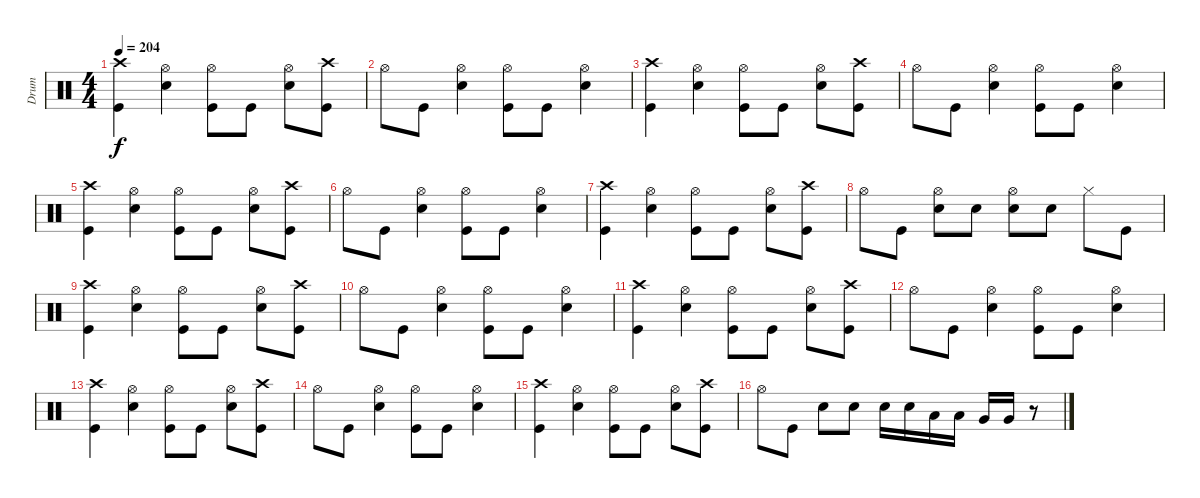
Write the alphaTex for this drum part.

\track ("Drum" "Drum") {instrument percussion}
\staff {score}
\articulation defaults
\ts (4 4)
\tempo 204
\clef neutral
\ks c
("Crash high (hit)" "Kick (hit)").4{dy f} ("Hi-Hat (open)" "Snare (hit) 2").4 ("Hi-Hat (open)" "Kick (hit)").8 "Kick (hit)".8 ("Hi-Hat (open)" "Snare (hit) 2").8 ("Crash high (hit)" "Kick (hit)").8 |
"Hi-Hat (open)".8 "Kick (hit)".8 ("Hi-Hat (open)" "Snare (hit) 2").4 ("Hi-Hat (open)" "Kick (hit)").8 "Kick (hit)".8 ("Hi-Hat (open)" "Snare (hit) 2").4 |
("Crash high (hit)" "Kick (hit)").4 ("Hi-Hat (open)" "Snare (hit) 2").4 ("Hi-Hat (open)" "Kick (hit)").8 "Kick (hit)".8 ("Hi-Hat (open)" "Snare (hit) 2").8 ("Crash high (hit)" "Kick (hit)").8 |
"Hi-Hat (open)".8 "Kick (hit)".8 ("Hi-Hat (open)" "Snare (hit) 2").4 ("Hi-Hat (open)" "Kick (hit)").8 "Kick (hit)".8 ("Hi-Hat (open)" "Snare (hit) 2").4 |
("Crash high (hit)" "Kick (hit)").4 ("Hi-Hat (open)" "Snare (hit) 2").4 ("Hi-Hat (open)" "Kick (hit)").8 "Kick (hit)".8 ("Hi-Hat (open)" "Snare (hit) 2").8 ("Crash high (hit)" "Kick (hit)").8 |
"Hi-Hat (open)".8 "Kick (hit)".8 ("Hi-Hat (open)" "Snare (hit) 2").4 ("Hi-Hat (open)" "Kick (hit)").8 "Kick (hit)".8 ("Hi-Hat (open)" "Snare (hit) 2").4 |
("Crash high (hit)" "Kick (hit)").4 ("Hi-Hat (open)" "Snare (hit) 2").4 ("Hi-Hat (open)" "Kick (hit)").8 "Kick (hit)".8 ("Hi-Hat (open)" "Snare (hit) 2").8 ("Crash high (hit)" "Kick (hit)").8 |
"Hi-Hat (open)".8 "Kick (hit)".8 ("Hi-Hat (open)" "Snare (hit) 2").8 "Snare (hit) 2".8 ("Hi-Hat (open)" "Snare (hit) 2").8 "Snare (hit) 2".8 "Hi-Hat (closed)".8 "Kick (hit)".8 |
("Crash high (hit)" "Kick (hit)").4 ("Hi-Hat (open)" "Snare (hit) 2").4 ("Hi-Hat (open)" "Kick (hit)").8 "Kick (hit)".8 ("Hi-Hat (open)" "Snare (hit) 2").8 ("Crash high (hit)" "Kick (hit)").8 |
"Hi-Hat (open)".8 "Kick (hit)".8 ("Hi-Hat (open)" "Snare (hit) 2").4 ("Hi-Hat (open)" "Kick (hit)").8 "Kick (hit)".8 ("Hi-Hat (open)" "Snare (hit) 2").4 |
("Crash high (hit)" "Kick (hit)").4 ("Hi-Hat (open)" "Snare (hit) 2").4 ("Hi-Hat (open)" "Kick (hit)").8 "Kick (hit)".8 ("Hi-Hat (open)" "Snare (hit) 2").8 ("Crash high (hit)" "Kick (hit)").8 |
"Hi-Hat (open)".8 "Kick (hit)".8 ("Hi-Hat (open)" "Snare (hit) 2").4 ("Hi-Hat (open)" "Kick (hit)").8 "Kick (hit)".8 ("Hi-Hat (open)" "Snare (hit) 2").4 |
("Crash high (hit)" "Kick (hit)").4 ("Hi-Hat (open)" "Snare (hit) 2").4 ("Hi-Hat (open)" "Kick (hit)").8 "Kick (hit)".8 ("Hi-Hat (open)" "Snare (hit) 2").8 ("Crash high (hit)" "Kick (hit)").8 |
"Hi-Hat (open)".8 "Kick (hit)".8 ("Hi-Hat (open)" "Snare (hit) 2").4 ("Hi-Hat (open)" "Kick (hit)").8 "Kick (hit)".8 ("Hi-Hat (open)" "Snare (hit) 2").4 |
("Crash high (hit)" "Kick (hit)").4 ("Hi-Hat (open)" "Snare (hit) 2").4 ("Hi-Hat (open)" "Kick (hit)").8 "Kick (hit)".8 ("Hi-Hat (open)" "Snare (hit) 2").8 ("Crash high (hit)" "Kick (hit)").8 |
"Hi-Hat (open)".8 "Kick (hit)".8 "Snare (hit) 2".8 "Snare (hit) 2".8 "Snare (hit) 2".16 "Snare (hit) 2".16 "Low Tom (hit)".16 "Low Tom (hit)".16 "Very Low Tom (hit)".16 "Very Low Tom (hit)".16 r.8
